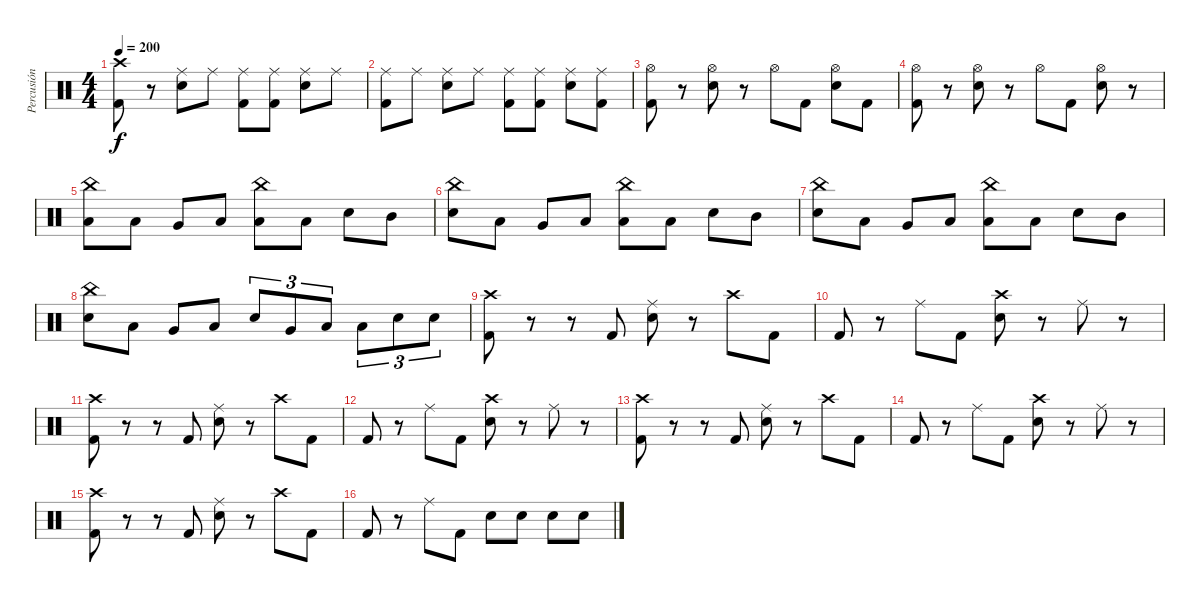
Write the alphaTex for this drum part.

\track ("Percusión" "Percusión") {instrument percussion}
\staff {score}
\articulation defaults
\ts (4 4)
\tempo 200
\clef neutral
\ks c
("Crash high (hit)" "Kick (hit) 2").8{dy f} r.8 ("Ride (middle)" "Electric Snare (hit)").8 "Ride (middle)".8 ("Ride (middle)" "Kick (hit) 2").8 ("Ride (middle)" "Kick (hit) 2").8 ("Ride (middle)" "Electric Snare (hit)").8 "Ride (middle)".8 |
("Ride (middle)" "Kick (hit) 2").8 "Ride (middle)".8 ("Ride (middle)" "Electric Snare (hit)").8 "Ride (middle)".8 ("Ride (middle)" "Kick (hit) 2").8 ("Ride (middle)" "Kick (hit) 2").8 ("Ride (middle)" "Electric Snare (hit)").8 ("Ride (middle)" "Kick (hit) 2").8 |
("Hi-Hat (open)" "Kick (hit) 2").8 r.8 ("Hi-Hat (open)" "Electric Snare (hit)").8 r.8 "Hi-Hat (open)".8 "Kick (hit) 2".8 ("Hi-Hat (open)" "Electric Snare (hit)").8 "Kick (hit) 2".8 |
("Hi-Hat (open)" "Kick (hit) 2").8 r.8 ("Hi-Hat (open)" "Electric Snare (hit)").8 r.8 "Hi-Hat (open)".8 "Kick (hit) 2".8 ("Hi-Hat (open)" "Electric Snare (hit)").8 r.8 |
("China (hit)" "Low Tom (hit)").8 "Low Tom (hit)".8 "Very Low Tom (hit)".8 "Low Floor Tom (hit)".8 ("China (hit)" "Low Tom (hit)").8 "Low Tom (hit)".8 "Electric Snare (hit)".8 "Mid Tom (hit)".8 |
("China (hit)" "Electric Snare (hit)").8 "Low Tom (hit)".8 "Very Low Tom (hit)".8 "Low Floor Tom (hit)".8 ("China (hit)" "Low Tom (hit)").8 "Low Tom (hit)".8 "Electric Snare (hit)".8 "Mid Tom (hit)".8 |
("China (hit)" "Electric Snare (hit)").8 "Low Tom (hit)".8 "Very Low Tom (hit)".8 "Low Floor Tom (hit)".8 ("China (hit)" "Low Tom (hit)").8 "Low Tom (hit)".8 "Electric Snare (hit)".8 "Mid Tom (hit)".8 |
("China (hit)" "Electric Snare (hit)").8 "Low Tom (hit)".8 "Very Low Tom (hit)".8 "Low Floor Tom (hit)".8 "Electric Snare (hit)".8{tu (3 2)} "Very Low Tom (hit)".8{tu (3 2)} "Low Tom (hit)".8{tu (3 2)} "Low Tom (hit)".8{tu (3 2)} "Electric Snare (hit)".8{tu (3 2)} "Electric Snare (hit)".8{tu (3 2)} |
("Crash high (hit)" "Kick (hit) 2").8 r.8 r.8 "Kick (hit) 2".8 ("Ride (middle)" "Electric Snare (hit)").8 r.8 "Crash high (hit)".8 "Kick (hit) 2".8 |
"Kick (hit) 2".8 r.8 "Ride (middle)".8 "Kick (hit) 2".8 ("Crash high (hit)" "Electric Snare (hit)").8 r.8 "Ride (middle)".8 r.8 |
("Crash high (hit)" "Kick (hit) 2").8 r.8 r.8 "Kick (hit) 2".8 ("Ride (middle)" "Electric Snare (hit)").8 r.8 "Crash high (hit)".8 "Kick (hit) 2".8 |
"Kick (hit) 2".8 r.8 "Ride (middle)".8 "Kick (hit) 2".8 ("Crash high (hit)" "Electric Snare (hit)").8 r.8 "Ride (middle)".8 r.8 |
("Crash high (hit)" "Kick (hit) 2").8 r.8 r.8 "Kick (hit) 2".8 ("Ride (middle)" "Electric Snare (hit)").8 r.8 "Crash high (hit)".8 "Kick (hit) 2".8 |
"Kick (hit) 2".8 r.8 "Ride (middle)".8 "Kick (hit) 2".8 ("Crash high (hit)" "Electric Snare (hit)").8 r.8 "Ride (middle)".8 r.8 |
("Crash high (hit)" "Kick (hit) 2").8 r.8 r.8 "Kick (hit) 2".8 ("Ride (middle)" "Electric Snare (hit)").8 r.8 "Crash high (hit)".8 "Kick (hit) 2".8 |
"Kick (hit) 2".8 r.8 "Ride (middle)".8 "Kick (hit) 2".8 "Electric Snare (hit)".8 "Electric Snare (hit)".8 "Electric Snare (hit)".8 "Electric Snare (hit)".8
